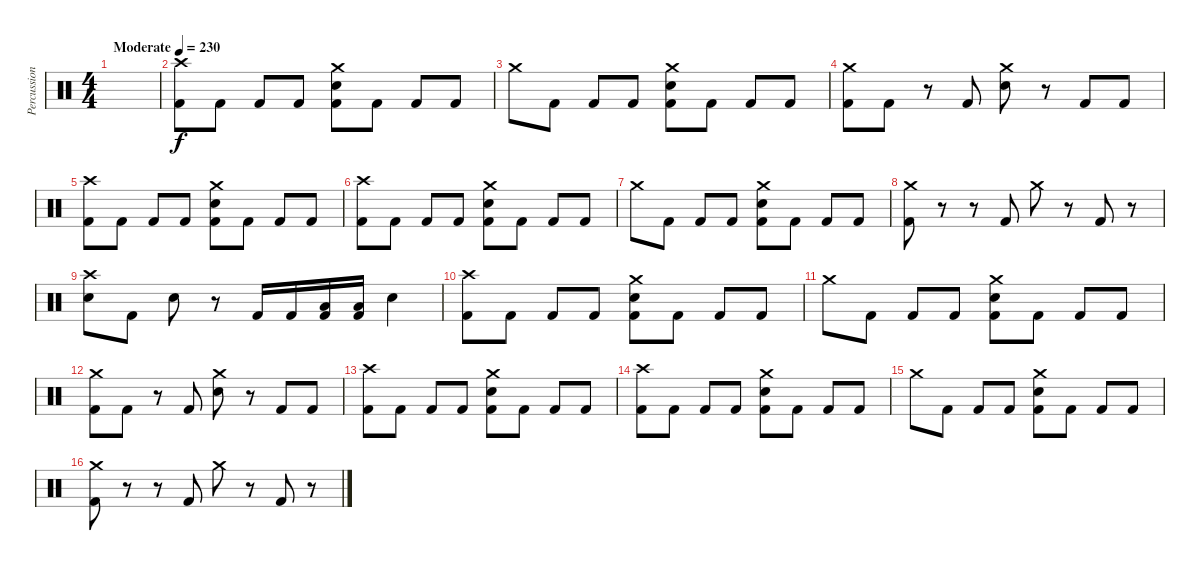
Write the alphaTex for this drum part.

\track ("Percussions" "Percussion") {instrument percussion}
\staff {score}
\articulation defaults
\ts (4 4)
\tempo (230 "Moderate")
\clef neutral
\ks c
|
("Kick (hit) 2" "Crash high (hit)").8 "Kick (hit) 2".8 "Kick (hit) 2".8 "Kick (hit) 2".8 ("Kick (hit) 2" "Electric Snare (hit)" "Crash medium (hit)").8 "Kick (hit) 2".8 "Kick (hit) 2".8 "Kick (hit) 2".8 |
"Crash medium (hit)".8 "Kick (hit) 2".8 "Kick (hit) 2".8 "Kick (hit) 2".8 ("Kick (hit) 2" "Electric Snare (hit)" "Crash medium (hit)").8 "Kick (hit) 2".8 "Kick (hit) 2".8 "Kick (hit) 2".8 |
("Kick (hit) 2" "Crash medium (hit)").8 "Kick (hit) 2".8 r.8 "Kick (hit) 2".8 ("Electric Snare (hit)" "Crash medium (hit)").8 r.8 "Kick (hit) 2".8 "Kick (hit) 2".8 |
("Kick (hit) 2" "Crash high (hit)").8 "Kick (hit) 2".8 "Kick (hit) 2".8 "Kick (hit) 2".8 ("Kick (hit) 2" "Electric Snare (hit)" "Crash medium (hit)").8 "Kick (hit) 2".8 "Kick (hit) 2".8 "Kick (hit) 2".8 |
("Kick (hit) 2" "Crash high (hit)").8 "Kick (hit) 2".8 "Kick (hit) 2".8 "Kick (hit) 2".8 ("Kick (hit) 2" "Electric Snare (hit)" "Crash medium (hit)").8 "Kick (hit) 2".8 "Kick (hit) 2".8 "Kick (hit) 2".8 |
"Crash medium (hit)".8 "Kick (hit) 2".8 "Kick (hit) 2".8 "Kick (hit) 2".8 ("Kick (hit) 2" "Electric Snare (hit)" "Crash medium (hit)").8 "Kick (hit) 2".8 "Kick (hit) 2".8 "Kick (hit) 2".8 |
("Kick (hit) 2" "Crash medium (hit)").8 r.8 r.8 "Kick (hit) 2".8 "Crash medium (hit)".8 r.8 "Kick (hit) 2".8 r.8 |
("Electric Snare (hit)" "Crash high (hit)").8 "Kick (hit) 2".8 "Electric Snare (hit)".8 r.8 "Kick (hit) 2".16 "Kick (hit) 2".16 ("Kick (hit) 2" "Low Tom (hit)").16 ("Kick (hit) 2" "Low Tom (hit)").16 "Electric Snare (hit)".4 |
("Kick (hit) 2" "Crash high (hit)").8 "Kick (hit) 2".8 "Kick (hit) 2".8 "Kick (hit) 2".8 ("Kick (hit) 2" "Electric Snare (hit)" "Crash medium (hit)").8 "Kick (hit) 2".8 "Kick (hit) 2".8 "Kick (hit) 2".8 |
"Crash medium (hit)".8 "Kick (hit) 2".8 "Kick (hit) 2".8 "Kick (hit) 2".8 ("Kick (hit) 2" "Electric Snare (hit)" "Crash medium (hit)").8 "Kick (hit) 2".8 "Kick (hit) 2".8 "Kick (hit) 2".8 |
("Kick (hit) 2" "Crash medium (hit)").8 "Kick (hit) 2".8 r.8 "Kick (hit) 2".8 ("Electric Snare (hit)" "Crash medium (hit)").8 r.8 "Kick (hit) 2".8 "Kick (hit) 2".8 |
("Kick (hit) 2" "Crash high (hit)").8 "Kick (hit) 2".8 "Kick (hit) 2".8 "Kick (hit) 2".8 ("Kick (hit) 2" "Electric Snare (hit)" "Crash medium (hit)").8 "Kick (hit) 2".8 "Kick (hit) 2".8 "Kick (hit) 2".8 |
("Kick (hit) 2" "Crash high (hit)").8 "Kick (hit) 2".8 "Kick (hit) 2".8 "Kick (hit) 2".8 ("Kick (hit) 2" "Electric Snare (hit)" "Crash medium (hit)").8 "Kick (hit) 2".8 "Kick (hit) 2".8 "Kick (hit) 2".8 |
"Crash medium (hit)".8 "Kick (hit) 2".8 "Kick (hit) 2".8 "Kick (hit) 2".8 ("Kick (hit) 2" "Electric Snare (hit)" "Crash medium (hit)").8 "Kick (hit) 2".8 "Kick (hit) 2".8 "Kick (hit) 2".8 |
("Kick (hit) 2" "Crash medium (hit)").8 r.8 r.8 "Kick (hit) 2".8 "Crash medium (hit)".8 r.8 "Kick (hit) 2".8 r.8
